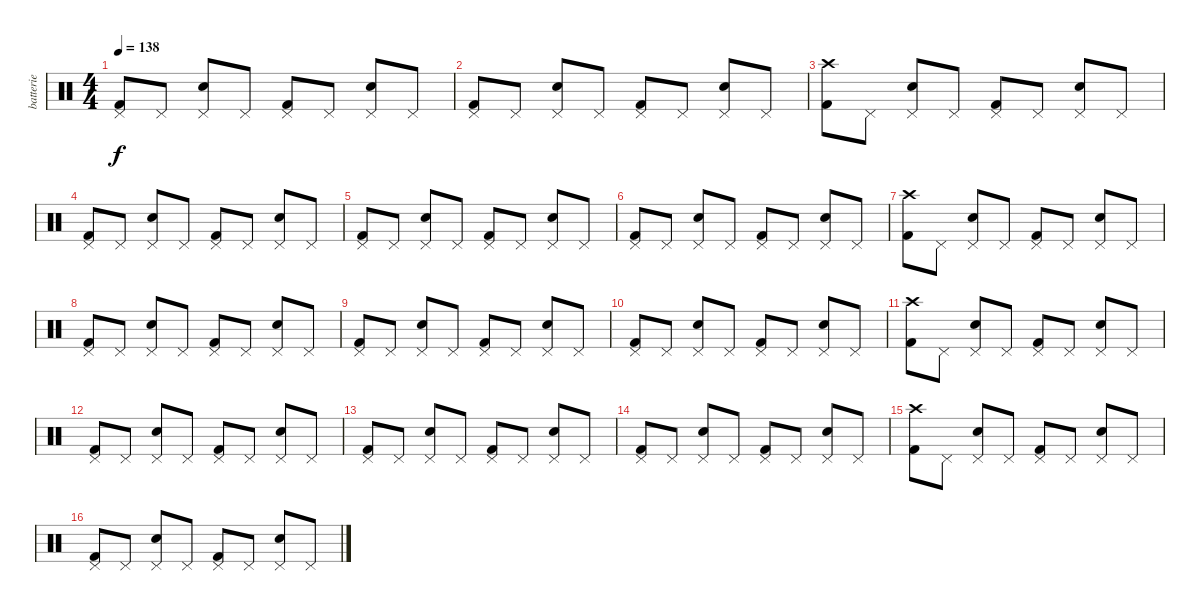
\track ("batterie" "batterie") {instrument percussion}
\staff {score}
\articulation defaults
\ts (4 4)
\tempo 138
\clef neutral
\ks c
("Kick (hit) 2" "Pedal Hi-Hat (hit)").8{dy f} "Pedal Hi-Hat (hit)".8 ("Electric Snare (hit)" "Pedal Hi-Hat (hit)").8 "Pedal Hi-Hat (hit)".8 ("Kick (hit) 2" "Pedal Hi-Hat (hit)").8 "Pedal Hi-Hat (hit)".8 ("Electric Snare (hit)" "Pedal Hi-Hat (hit)").8 "Pedal Hi-Hat (hit)".8 |
("Kick (hit) 2" "Pedal Hi-Hat (hit)").8 "Pedal Hi-Hat (hit)".8 ("Electric Snare (hit)" "Pedal Hi-Hat (hit)").8 "Pedal Hi-Hat (hit)".8 ("Kick (hit) 2" "Pedal Hi-Hat (hit)").8 "Pedal Hi-Hat (hit)".8 ("Electric Snare (hit)" "Pedal Hi-Hat (hit)").8 "Pedal Hi-Hat (hit)".8 |
("Crash high (hit)" "Kick (hit) 2").8 "Pedal Hi-Hat (hit)".8 ("Electric Snare (hit)" "Pedal Hi-Hat (hit)").8 "Pedal Hi-Hat (hit)".8 ("Kick (hit) 2" "Pedal Hi-Hat (hit)").8 "Pedal Hi-Hat (hit)".8 ("Electric Snare (hit)" "Pedal Hi-Hat (hit)").8 "Pedal Hi-Hat (hit)".8 |
("Kick (hit) 2" "Pedal Hi-Hat (hit)").8 "Pedal Hi-Hat (hit)".8 ("Electric Snare (hit)" "Pedal Hi-Hat (hit)").8 "Pedal Hi-Hat (hit)".8 ("Kick (hit) 2" "Pedal Hi-Hat (hit)").8 "Pedal Hi-Hat (hit)".8 ("Electric Snare (hit)" "Pedal Hi-Hat (hit)").8 "Pedal Hi-Hat (hit)".8 |
("Kick (hit) 2" "Pedal Hi-Hat (hit)").8 "Pedal Hi-Hat (hit)".8 ("Electric Snare (hit)" "Pedal Hi-Hat (hit)").8 "Pedal Hi-Hat (hit)".8 ("Kick (hit) 2" "Pedal Hi-Hat (hit)").8 "Pedal Hi-Hat (hit)".8 ("Electric Snare (hit)" "Pedal Hi-Hat (hit)").8 "Pedal Hi-Hat (hit)".8 |
("Kick (hit) 2" "Pedal Hi-Hat (hit)").8 "Pedal Hi-Hat (hit)".8 ("Electric Snare (hit)" "Pedal Hi-Hat (hit)").8 "Pedal Hi-Hat (hit)".8 ("Kick (hit) 2" "Pedal Hi-Hat (hit)").8 "Pedal Hi-Hat (hit)".8 ("Electric Snare (hit)" "Pedal Hi-Hat (hit)").8 "Pedal Hi-Hat (hit)".8 |
("Crash high (hit)" "Kick (hit) 2").8 "Pedal Hi-Hat (hit)".8 ("Electric Snare (hit)" "Pedal Hi-Hat (hit)").8 "Pedal Hi-Hat (hit)".8 ("Kick (hit) 2" "Pedal Hi-Hat (hit)").8 "Pedal Hi-Hat (hit)".8 ("Electric Snare (hit)" "Pedal Hi-Hat (hit)").8 "Pedal Hi-Hat (hit)".8 |
("Kick (hit) 2" "Pedal Hi-Hat (hit)").8 "Pedal Hi-Hat (hit)".8 ("Electric Snare (hit)" "Pedal Hi-Hat (hit)").8 "Pedal Hi-Hat (hit)".8 ("Kick (hit) 2" "Pedal Hi-Hat (hit)").8 "Pedal Hi-Hat (hit)".8 ("Electric Snare (hit)" "Pedal Hi-Hat (hit)").8 "Pedal Hi-Hat (hit)".8 |
("Kick (hit) 2" "Pedal Hi-Hat (hit)").8 "Pedal Hi-Hat (hit)".8 ("Electric Snare (hit)" "Pedal Hi-Hat (hit)").8 "Pedal Hi-Hat (hit)".8 ("Kick (hit) 2" "Pedal Hi-Hat (hit)").8 "Pedal Hi-Hat (hit)".8 ("Electric Snare (hit)" "Pedal Hi-Hat (hit)").8 "Pedal Hi-Hat (hit)".8 |
("Kick (hit) 2" "Pedal Hi-Hat (hit)").8 "Pedal Hi-Hat (hit)".8 ("Electric Snare (hit)" "Pedal Hi-Hat (hit)").8 "Pedal Hi-Hat (hit)".8 ("Kick (hit) 2" "Pedal Hi-Hat (hit)").8 "Pedal Hi-Hat (hit)".8 ("Electric Snare (hit)" "Pedal Hi-Hat (hit)").8 "Pedal Hi-Hat (hit)".8 |
("Crash high (hit)" "Kick (hit) 2").8 "Pedal Hi-Hat (hit)".8 ("Electric Snare (hit)" "Pedal Hi-Hat (hit)").8 "Pedal Hi-Hat (hit)".8 ("Kick (hit) 2" "Pedal Hi-Hat (hit)").8 "Pedal Hi-Hat (hit)".8 ("Electric Snare (hit)" "Pedal Hi-Hat (hit)").8 "Pedal Hi-Hat (hit)".8 |
("Kick (hit) 2" "Pedal Hi-Hat (hit)").8 "Pedal Hi-Hat (hit)".8 ("Electric Snare (hit)" "Pedal Hi-Hat (hit)").8 "Pedal Hi-Hat (hit)".8 ("Kick (hit) 2" "Pedal Hi-Hat (hit)").8 "Pedal Hi-Hat (hit)".8 ("Electric Snare (hit)" "Pedal Hi-Hat (hit)").8 "Pedal Hi-Hat (hit)".8 |
("Kick (hit) 2" "Pedal Hi-Hat (hit)").8 "Pedal Hi-Hat (hit)".8 ("Electric Snare (hit)" "Pedal Hi-Hat (hit)").8 "Pedal Hi-Hat (hit)".8 ("Kick (hit) 2" "Pedal Hi-Hat (hit)").8 "Pedal Hi-Hat (hit)".8 ("Electric Snare (hit)" "Pedal Hi-Hat (hit)").8 "Pedal Hi-Hat (hit)".8 |
("Kick (hit) 2" "Pedal Hi-Hat (hit)").8 "Pedal Hi-Hat (hit)".8 ("Electric Snare (hit)" "Pedal Hi-Hat (hit)").8 "Pedal Hi-Hat (hit)".8 ("Kick (hit) 2" "Pedal Hi-Hat (hit)").8 "Pedal Hi-Hat (hit)".8 ("Electric Snare (hit)" "Pedal Hi-Hat (hit)").8 "Pedal Hi-Hat (hit)".8 |
("Crash high (hit)" "Kick (hit) 2").8 "Pedal Hi-Hat (hit)".8 ("Electric Snare (hit)" "Pedal Hi-Hat (hit)").8 "Pedal Hi-Hat (hit)".8 ("Kick (hit) 2" "Pedal Hi-Hat (hit)").8 "Pedal Hi-Hat (hit)".8 ("Electric Snare (hit)" "Pedal Hi-Hat (hit)").8 "Pedal Hi-Hat (hit)".8 |
("Kick (hit) 2" "Pedal Hi-Hat (hit)").8 "Pedal Hi-Hat (hit)".8 ("Electric Snare (hit)" "Pedal Hi-Hat (hit)").8 "Pedal Hi-Hat (hit)".8 ("Kick (hit) 2" "Pedal Hi-Hat (hit)").8 "Pedal Hi-Hat (hit)".8 ("Electric Snare (hit)" "Pedal Hi-Hat (hit)").8 "Pedal Hi-Hat (hit)".8
